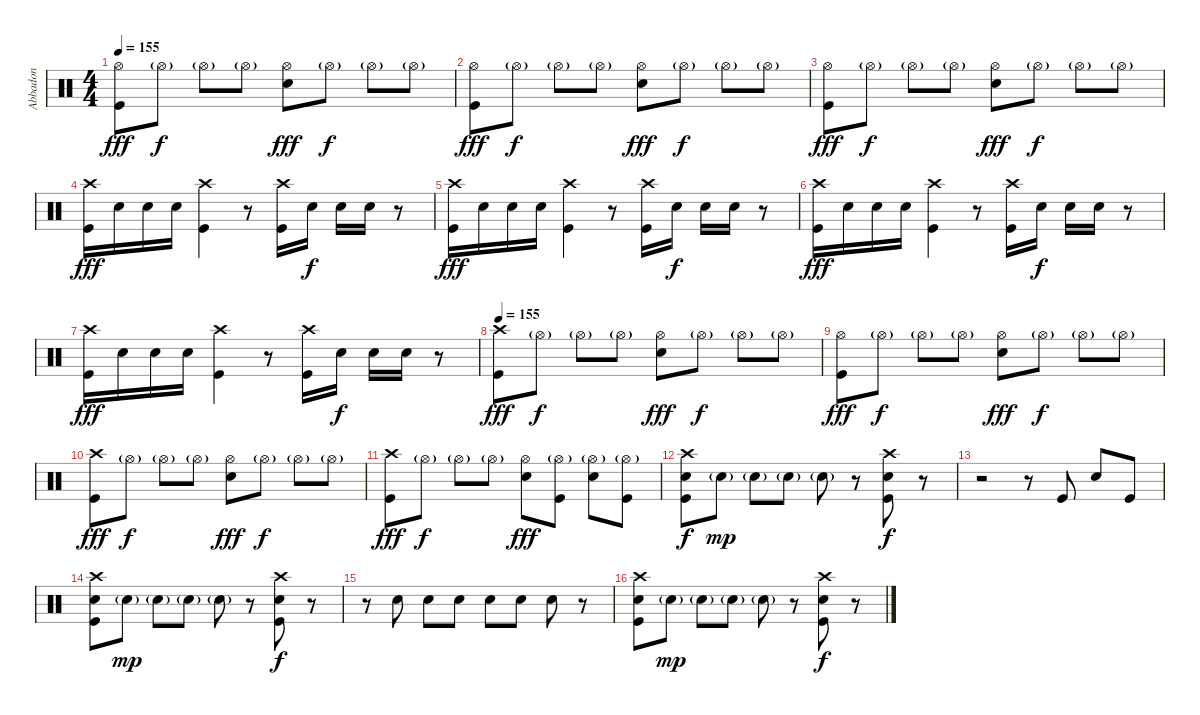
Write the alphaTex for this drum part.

\track ("Abbadon" "Abbadon") {instrument percussion}
\staff {score}
\articulation defaults
\ts (4 4)
\tempo 155
\clef neutral
\ks c
("Hi-Hat (open)" "Kick (hit)").8{dy fff} "Hi-Hat (open)"{g}.8{dy f} "Hi-Hat (open)"{g}.8 "Hi-Hat (open)"{g}.8 ("Hi-Hat (open)" "Electric Snare (hit)").8{dy fff} "Hi-Hat (open)"{g}.8{dy f} "Hi-Hat (open)"{g}.8 "Hi-Hat (open)"{g}.8 |
("Hi-Hat (open)" "Kick (hit)").8{dy fff} "Hi-Hat (open)"{g}.8{dy f} "Hi-Hat (open)"{g}.8 "Hi-Hat (open)"{g}.8 ("Hi-Hat (open)" "Electric Snare (hit)").8{dy fff} "Hi-Hat (open)"{g}.8{dy f} "Hi-Hat (open)"{g}.8 "Hi-Hat (open)"{g}.8 |
("Hi-Hat (open)" "Kick (hit)").8{dy fff} "Hi-Hat (open)"{g}.8{dy f} "Hi-Hat (open)"{g}.8 "Hi-Hat (open)"{g}.8 ("Hi-Hat (open)" "Electric Snare (hit)").8{dy fff} "Hi-Hat (open)"{g}.8{dy f} "Hi-Hat (open)"{g}.8 "Hi-Hat (open)"{g}.8 |
("Crash high (hit)" "Kick (hit)").16{dy fff} "Electric Snare (hit)".16 "Electric Snare (hit)".16 "Electric Snare (hit)".16 ("Crash high (hit)" "Kick (hit)").4 r.8 ("Crash high (hit)" "Kick (hit)").16 "Electric Snare (hit)".16{dy f} "Electric Snare (hit)".16 "Electric Snare (hit)".16 r.8 |
("Crash high (hit)" "Kick (hit)").16{dy fff} "Electric Snare (hit)".16 "Electric Snare (hit)".16 "Electric Snare (hit)".16 ("Crash high (hit)" "Kick (hit)").4 r.8 ("Crash high (hit)" "Kick (hit)").16 "Electric Snare (hit)".16{dy f} "Electric Snare (hit)".16 "Electric Snare (hit)".16 r.8 |
("Crash high (hit)" "Kick (hit)").16{dy fff} "Electric Snare (hit)".16 "Electric Snare (hit)".16 "Electric Snare (hit)".16 ("Crash high (hit)" "Kick (hit)").4 r.8 ("Crash high (hit)" "Kick (hit)").16 "Electric Snare (hit)".16{dy f} "Electric Snare (hit)".16 "Electric Snare (hit)".16 r.8 |
("Crash high (hit)" "Kick (hit)").16{dy fff} "Electric Snare (hit)".16 "Electric Snare (hit)".16 "Electric Snare (hit)".16 ("Crash high (hit)" "Kick (hit)").4 r.8 ("Crash high (hit)" "Kick (hit)").16 "Electric Snare (hit)".16{dy f} "Electric Snare (hit)".16 "Electric Snare (hit)".16 r.8 |
\tempo 155
("Crash high (hit)" "Kick (hit)").8{dy fff} "Hi-Hat (open)"{g}.8{dy f} "Hi-Hat (open)"{g}.8 "Hi-Hat (open)"{g}.8 ("Hi-Hat (open)" "Electric Snare (hit)").8{dy fff} "Hi-Hat (open)"{g}.8{dy f} "Hi-Hat (open)"{g}.8 "Hi-Hat (open)"{g}.8 |
("Hi-Hat (open)" "Kick (hit)").8{dy fff} "Hi-Hat (open)"{g}.8{dy f} "Hi-Hat (open)"{g}.8 "Hi-Hat (open)"{g}.8 ("Hi-Hat (open)" "Electric Snare (hit)").8{dy fff} "Hi-Hat (open)"{g}.8{dy f} "Hi-Hat (open)"{g}.8 "Hi-Hat (open)"{g}.8 |
("Crash high (hit)" "Kick (hit)").8{dy fff} "Hi-Hat (open)"{g}.8{dy f} "Hi-Hat (open)"{g}.8 "Hi-Hat (open)"{g}.8 ("Hi-Hat (open)" "Electric Snare (hit)").8{dy fff} "Hi-Hat (open)"{g}.8{dy f} "Hi-Hat (open)"{g}.8 "Hi-Hat (open)"{g}.8 |
("Crash high (hit)" "Kick (hit)").8{dy fff} "Hi-Hat (open)"{g}.8{dy f} "Hi-Hat (open)"{g}.8 "Hi-Hat (open)"{g}.8 ("Hi-Hat (open)" "Electric Snare (hit)").8{dy fff} ("Hi-Hat (open)"{g} "Kick (hit)").8 ("Hi-Hat (open)"{g} "Electric Snare (hit)").8 ("Hi-Hat (open)"{g} "Kick (hit)").8 |
("Crash high (hit)" "Electric Snare (hit)" "Kick (hit)").8{dy f} "Electric Snare (hit)"{g}.8{dy mp} "Electric Snare (hit)"{g}.8 "Electric Snare (hit)"{g}.8 "Electric Snare (hit)"{g}.8 r.8 ("Crash high (hit)" "Electric Snare (hit)" "Kick (hit)").8{dy f} r.8 |
r.2 r.8 "Kick (hit)".8 "Electric Snare (hit)".8 "Kick (hit)".8 |
("Crash high (hit)" "Electric Snare (hit)" "Kick (hit)").8 "Electric Snare (hit)"{g}.8{dy mp} "Electric Snare (hit)"{g}.8 "Electric Snare (hit)"{g}.8 "Electric Snare (hit)"{g}.8 r.8 ("Crash high (hit)" "Electric Snare (hit)" "Kick (hit)").8{dy f} r.8 |
r.8 "Electric Snare (hit)".8 "Electric Snare (hit)".8 "Electric Snare (hit)".8 "Electric Snare (hit)".8 "Electric Snare (hit)".8 "Electric Snare (hit)".8 r.8 |
("Crash high (hit)" "Electric Snare (hit)" "Kick (hit)").8 "Electric Snare (hit)"{g}.8{dy mp} "Electric Snare (hit)"{g}.8 "Electric Snare (hit)"{g}.8 "Electric Snare (hit)"{g}.8 r.8 ("Crash high (hit)" "Electric Snare (hit)" "Kick (hit)").8{dy f} r.8
